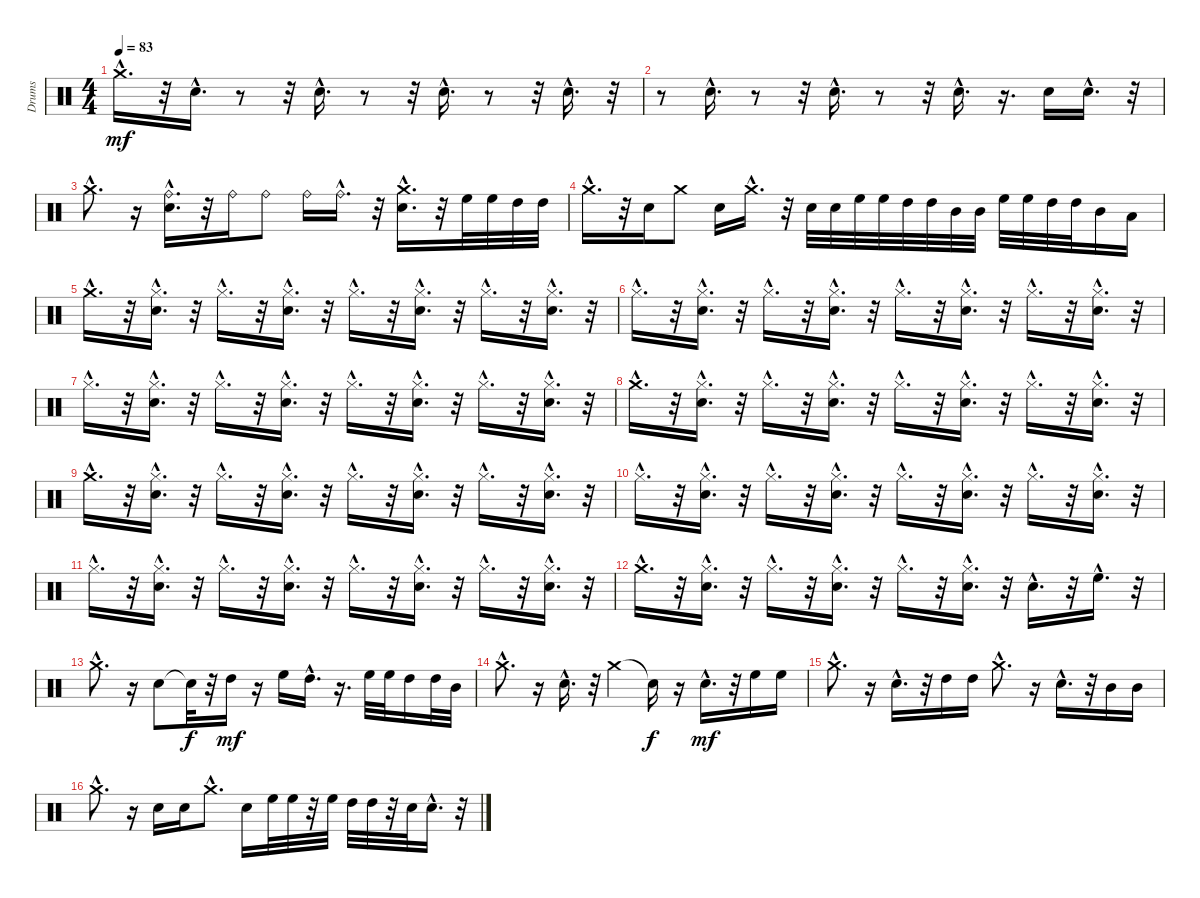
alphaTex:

\track ("Drums" "Drums") {instrument percussion}
\staff {score}
\articulation defaults
\ts (4 4)
\tempo 83
\clef neutral
\ks c "Crash medium (hit)"{hac}.16{d dy mf}
r.32 "Electric Snare (hit)"{hac}.16{d} r.8 r.32 "Electric Snare (hit)"{hac}.16{d} r.8 r.32 "Electric Snare (hit)"{hac}.16{d} r.8 r.32 "Electric Snare (hit)"{hac}.16{d} r.32 |
r.8 "Electric Snare (hit)"{hac}.16{d} r.8 r.32 "Electric Snare (hit)"{hac}.16{d} r.8 r.32 "Electric Snare (hit)"{hac}.16{d} r.16{d} "Electric Snare (hit)".16 "Electric Snare (hit)"{hac}.16{d} r.32 |
"Crash medium (hit)"{hac}.8{d} r.16 ("Ride (bell)"{hac} "Electric Snare (hit)"{hac}).16{d} r.32 "Ride (bell)".16 "Ride (bell)".8 "Ride (bell)".16 "Ride (bell)"{hac}.16{d} r.32 ("Crash medium (hit)"{hac} "Electric Snare (hit)"{hac}).16{d} r.32 "High Floor Tom (hit)".32 "High Floor Tom (hit)".32 "High Tom (hit)".32 "High Tom (hit)".32 |
"Crash medium (hit)"{hac}.16{d} r.32 "Electric Snare (hit)".16 "Crash medium (hit)".8 "Electric Snare (hit)".16 "Crash medium (hit)"{hac}.16{d} r.32 "Electric Snare (hit)".32 "Electric Snare (hit)".32 "High Floor Tom (hit)".32 "High Floor Tom (hit)".32 "High Tom (hit)".32 "High Tom (hit)".32 "Mid Tom (hit)".32 "Mid Tom (hit)".32 "High Floor Tom (hit)".32 "High Floor Tom (hit)".32 "High Tom (hit)".32 "High Tom (hit)".32 "Mid Tom (hit)".16 "Low Tom (hit)".16 |
"Crash medium (hit)"{hac}.16{d} r.32 ("Hi-Hat (closed)"{hac} "Electric Snare (hit)"{hac}).16{d} r.32 "Hi-Hat (closed)"{hac}.16{d} r.32 ("Hi-Hat (closed)"{hac} "Electric Snare (hit)"{hac}).16{d} r.32 "Hi-Hat (closed)"{hac}.16{d} r.32 ("Electric Snare (hit)"{hac} "Hi-Hat (closed)"{hac}).16{d} r.32 "Hi-Hat (closed)"{hac}.16{d} r.32 ("Electric Snare (hit)"{hac} "Hi-Hat (closed)"{hac}).16{d} r.32 |
"Hi-Hat (closed)"{hac}.16{d} r.32 ("Hi-Hat (closed)"{hac} "Electric Snare (hit)"{hac}).16{d} r.32 "Hi-Hat (closed)"{hac}.16{d} r.32 ("Hi-Hat (closed)"{hac} "Electric Snare (hit)"{hac}).16{d} r.32 "Hi-Hat (closed)"{hac}.16{d} r.32 ("Electric Snare (hit)"{hac} "Hi-Hat (closed)"{hac}).16{d} r.32 "Hi-Hat (closed)"{hac}.16{d} r.32 ("Hi-Hat (closed)"{hac} "Electric Snare (hit)"{hac}).16{d} r.32 |
"Hi-Hat (closed)"{hac}.16{d} r.32 ("Hi-Hat (closed)"{hac} "Electric Snare (hit)"{hac}).16{d} r.32 "Hi-Hat (closed)"{hac}.16{d} r.32 ("Electric Snare (hit)"{hac} "Hi-Hat (closed)"{hac}).16{d} r.32 "Hi-Hat (closed)"{hac}.16{d} r.32 ("Electric Snare (hit)"{hac} "Hi-Hat (closed)"{hac}).16{d} r.32 "Hi-Hat (closed)"{hac}.16{d} r.32 ("Electric Snare (hit)"{hac} "Hi-Hat (closed)"{hac}).16{d} r.32 |
"Crash medium (hit)"{hac}.16{d} r.32 ("Electric Snare (hit)"{hac} "Hi-Hat (closed)"{hac}).16{d} r.32 "Hi-Hat (closed)"{hac}.16{d} r.32 ("Electric Snare (hit)"{hac} "Hi-Hat (closed)"{hac}).16{d} r.32 "Hi-Hat (closed)"{hac}.16{d} r.32 ("Electric Snare (hit)"{hac} "Hi-Hat (closed)"{hac}).16{d} r.32 "Hi-Hat (closed)"{hac}.16{d} r.32 ("Electric Snare (hit)"{hac} "Hi-Hat (closed)"{hac}).16{d} r.32 |
"Crash medium (hit)"{hac}.16{d} r.32 ("Electric Snare (hit)"{hac} "Hi-Hat (closed)"{hac}).16{d} r.32 "Hi-Hat (closed)"{hac}.16{d} r.32 ("Electric Snare (hit)"{hac} "Hi-Hat (closed)"{hac}).16{d} r.32 "Hi-Hat (closed)"{hac}.16{d} r.32 ("Electric Snare (hit)"{hac} "Hi-Hat (closed)"{hac}).16{d} r.32 "Hi-Hat (closed)"{hac}.16{d} r.32 ("Hi-Hat (closed)"{hac} "Electric Snare (hit)"{hac}).16{d} r.32 |
"Hi-Hat (closed)"{hac}.16{d} r.32 ("Electric Snare (hit)"{hac} "Hi-Hat (closed)"{hac}).16{d} r.32 "Hi-Hat (closed)"{hac}.16{d} r.32 ("Hi-Hat (closed)"{hac} "Electric Snare (hit)"{hac}).16{d} r.32 "Hi-Hat (closed)"{hac}.16{d} r.32 ("Hi-Hat (closed)"{hac} "Electric Snare (hit)"{hac}).16{d} r.32 "Hi-Hat (closed)"{hac}.16{d} r.32 ("Hi-Hat (closed)"{hac} "Electric Snare (hit)"{hac}).16{d} r.32 |
"Hi-Hat (closed)"{hac}.16{d} r.32 ("Hi-Hat (closed)"{hac} "Electric Snare (hit)"{hac}).16{d} r.32 "Hi-Hat (closed)"{hac}.16{d} r.32 ("Electric Snare (hit)"{hac} "Hi-Hat (closed)"{hac}).16{d} r.32 "Hi-Hat (closed)"{hac}.16{d} r.32 ("Electric Snare (hit)"{hac} "Hi-Hat (closed)"{hac}).16{d} r.32 "Hi-Hat (closed)"{hac}.16{d} r.32 ("Electric Snare (hit)"{hac} "Hi-Hat (closed)"{hac}).16{d} r.32 |
"Crash medium (hit)"{hac}.16{d} r.32 ("Electric Snare (hit)"{hac} "Hi-Hat (closed)"{hac}).16{d} r.32 "Hi-Hat (closed)"{hac}.16{d} r.32 ("Hi-Hat (closed)"{hac} "Electric Snare (hit)"{hac}).16{d} r.32 "Hi-Hat (closed)"{hac}.16{d} r.32 ("Electric Snare (hit)"{hac} "Hi-Hat (closed)"{hac}).16{d} r.32 "Electric Snare (hit)"{hac}.16{d} r.32 "High Floor Tom (hit)"{hac}.16{d} r.32 |
"Crash medium (hit)"{hac}.8{d} r.16 "Electric Snare (hit)".8 "Snare (hit)"{t}.32{dy f} r.32 "High Tom (hit)".16{dy mf} r.16 "High Floor Tom (hit)".16 "High Tom (hit)"{hac}.16{d} r.16{d} "High Floor Tom (hit)".32 "High Floor Tom (hit)".32 "High Tom (hit)".16 "High Tom (hit)".32 "Mid Tom (hit)".32 |
"Crash medium (hit)"{hac}.8{d} r.16 "Electric Snare (hit)"{hac}.16{d} r.32 "Crash medium (hit)".4 "Snare (hit)"{t}.16{dy f} r.16 "Electric Snare (hit)"{hac}.16{d dy mf} r.32 "High Floor Tom (hit)".16 "High Floor Tom (hit)".16 |
"Crash medium (hit)"{hac}.8{d} r.16 "Electric Snare (hit)"{hac}.16{d} r.32 "High Tom (hit)".16 "High Tom (hit)".16 "Crash medium (hit)"{hac}.8{d} r.16 "Electric Snare (hit)"{hac}.16{d} r.32 "Mid Tom (hit)".16 "Mid Tom (hit)".16 |
"Crash medium (hit)"{hac}.8{d} r.16 "Electric Snare (hit)".16 "Electric Snare (hit)".16 "Crash medium (hit)"{hac}.8{d} "Electric Snare (hit)".16 "High Floor Tom (hit)".32 "High Floor Tom (hit)".32 r.32 "High Floor Tom (hit)".32 "High Tom (hit)".32 "High Tom (hit)".32 r.32 "Electric Snare (hit)".32 "Electric Snare (hit)"{hac}.16{d} r.32
